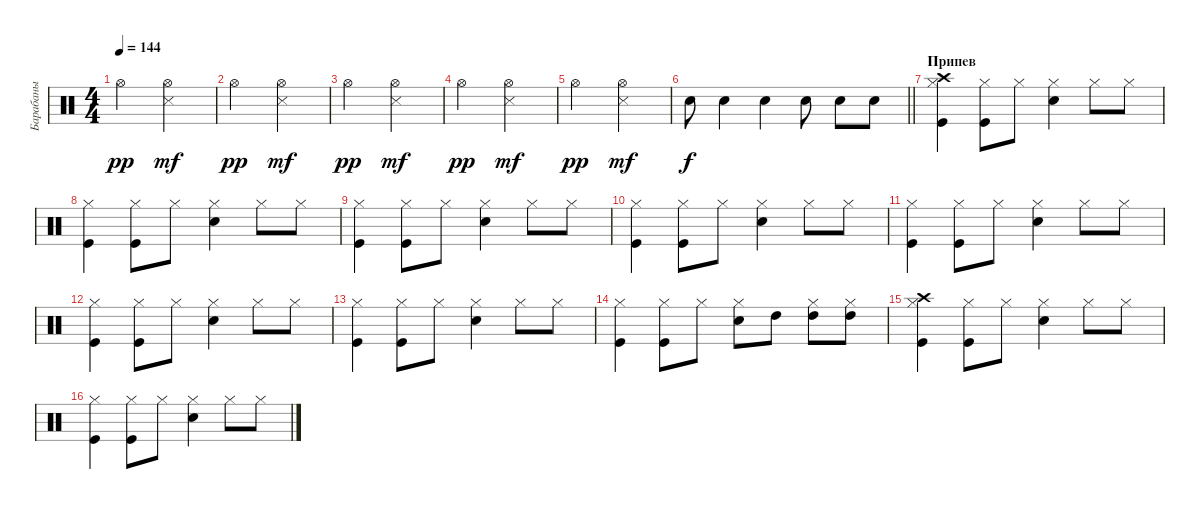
\track ("Барабаны" "Барабаны") {instrument percussion}
\staff {score}
\articulation defaults
\ts (4 4)
\tempo 144
\clef neutral
\ks c "Hi-Hat (open)".2{dy pp}
("Hi-Hat (open)" "Snare (side stick) 3").2{dy mf} |
"Hi-Hat (open)".2{dy pp} ("Hi-Hat (open)" "Snare (side stick) 3").2{dy mf} |
"Hi-Hat (open)".2{dy pp} ("Hi-Hat (open)" "Snare (side stick) 3").2{dy mf} |
"Hi-Hat (open)".2{dy pp} ("Hi-Hat (open)" "Snare (side stick) 3").2{dy mf} |
"Hi-Hat (open)".2{dy pp} ("Hi-Hat (open)" "Snare (side stick) 3").2{dy mf} |
\barLineRight lightlight "Snare (hit) 2".8{dy f} "Snare (hit) 2".4 "Snare (hit) 2".4 "Snare (hit) 2".8 "Snare (hit) 2".8 "Snare (hit) 2".8
|
\section ("" "Припев")
("Kick (hit)" "Hi-Hat (closed)" "Crash high (hit)").4 ("Kick (hit)" "Hi-Hat (closed)").8 "Hi-Hat (closed)".8 ("Snare (hit) 2" "Hi-Hat (closed)").4 "Hi-Hat (closed)".8 "Hi-Hat (closed)".8 |
("Kick (hit)" "Hi-Hat (closed)").4 ("Kick (hit)" "Hi-Hat (closed)").8 "Hi-Hat (closed)".8 ("Snare (hit) 2" "Hi-Hat (closed)").4 "Hi-Hat (closed)".8 "Hi-Hat (closed)".8 |
("Kick (hit)" "Hi-Hat (closed)").4 ("Kick (hit)" "Hi-Hat (closed)").8 "Hi-Hat (closed)".8 ("Snare (hit) 2" "Hi-Hat (closed)").4 "Hi-Hat (closed)".8 "Hi-Hat (closed)".8 |
("Kick (hit)" "Hi-Hat (closed)").4 ("Kick (hit)" "Hi-Hat (closed)").8 "Hi-Hat (closed)".8 ("Snare (hit) 2" "Hi-Hat (closed)").4 "Hi-Hat (closed)".8 "Hi-Hat (closed)".8 |
("Kick (hit)" "Hi-Hat (closed)").4 ("Kick (hit)" "Hi-Hat (closed)").8 "Hi-Hat (closed)".8 ("Snare (hit) 2" "Hi-Hat (closed)").4 "Hi-Hat (closed)".8 "Hi-Hat (closed)".8 |
("Kick (hit)" "Hi-Hat (closed)").4 ("Kick (hit)" "Hi-Hat (closed)").8 "Hi-Hat (closed)".8 ("Snare (hit) 2" "Hi-Hat (closed)").4 "Hi-Hat (closed)".8 "Hi-Hat (closed)".8 |
("Kick (hit)" "Hi-Hat (closed)").4 ("Kick (hit)" "Hi-Hat (closed)").8 "Hi-Hat (closed)".8 ("Snare (hit) 2" "Hi-Hat (closed)").4 "Hi-Hat (closed)".8 "Hi-Hat (closed)".8 |
("Kick (hit)" "Hi-Hat (closed)").4 ("Kick (hit)" "Hi-Hat (closed)").8 "Hi-Hat (closed)".8 ("Snare (hit) 2" "Hi-Hat (closed)").8 "High Tom (hit)".8 ("Hi-Hat (closed)" "High Tom (hit)").8 ("Hi-Hat (closed)" "High Tom (hit)").8 |
("Kick (hit)" "Hi-Hat (closed)" "Crash high (hit)").4 ("Kick (hit)" "Hi-Hat (closed)").8 "Hi-Hat (closed)".8 ("Snare (hit) 2" "Hi-Hat (closed)").4 "Hi-Hat (closed)".8 "Hi-Hat (closed)".8 |
("Kick (hit)" "Hi-Hat (closed)").4 ("Kick (hit)" "Hi-Hat (closed)").8 "Hi-Hat (closed)".8 ("Snare (hit) 2" "Hi-Hat (closed)").4 "Hi-Hat (closed)".8 "Hi-Hat (closed)".8
